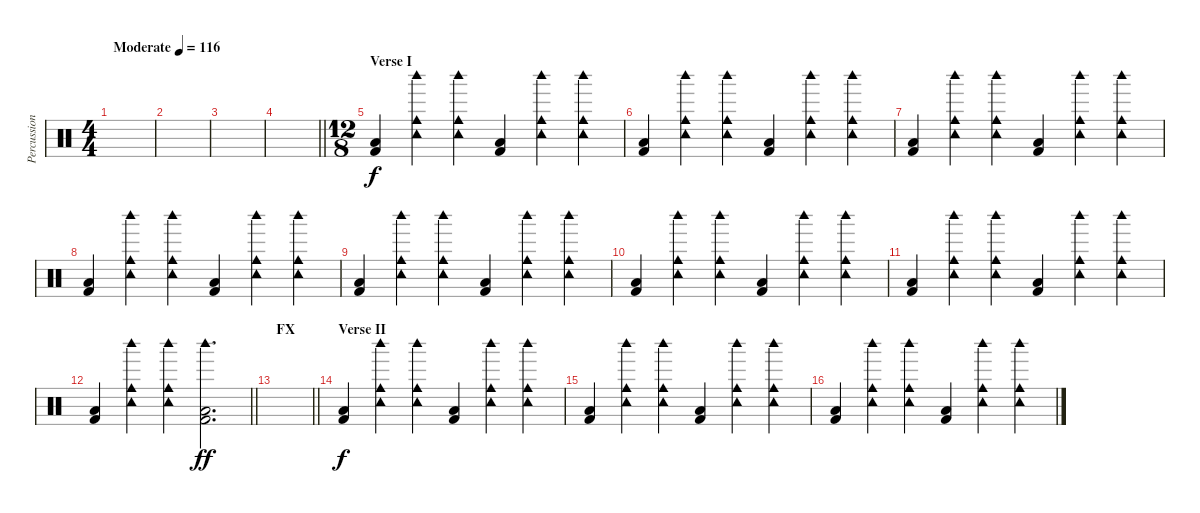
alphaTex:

\track ("Percussion" "Percussion") {instrument percussion}
\staff {score}
\articulation defaults
\ts (4 4)
\tempo (116 "Moderate")
\clef neutral
\ks c
|
|
|
\barLineRight lightlight
|
\ts (12 8)
\section ("" "Verse I")
("Low Floor Tom (hit)" "Kick (hit) 2").4 ("Tambourine (hit)" "Cowbell medium (hit)" "Woodblock high (hit)").4 ("Tambourine (hit)" "Cowbell medium (hit)" "Woodblock high (hit)").4 ("Low Floor Tom (hit)" "Kick (hit) 2").4 ("Tambourine (hit)" "Cowbell medium (hit)" "Woodblock high (hit)").4 ("Tambourine (hit)" "Cowbell medium (hit)" "Woodblock high (hit)").4 |
("Low Floor Tom (hit)" "Kick (hit) 2").4 ("Tambourine (hit)" "Cowbell medium (hit)" "Woodblock high (hit)").4 ("Tambourine (hit)" "Cowbell medium (hit)" "Woodblock high (hit)").4 ("Low Floor Tom (hit)" "Kick (hit) 2").4 ("Tambourine (hit)" "Cowbell medium (hit)" "Woodblock high (hit)").4 ("Tambourine (hit)" "Cowbell medium (hit)" "Woodblock high (hit)").4 |
("Low Floor Tom (hit)" "Kick (hit) 2").4 ("Tambourine (hit)" "Cowbell medium (hit)" "Woodblock high (hit)").4 ("Tambourine (hit)" "Cowbell medium (hit)" "Woodblock high (hit)").4 ("Low Floor Tom (hit)" "Kick (hit) 2").4 ("Tambourine (hit)" "Cowbell medium (hit)" "Woodblock high (hit)").4 ("Tambourine (hit)" "Cowbell medium (hit)" "Woodblock high (hit)").4 |
("Low Floor Tom (hit)" "Kick (hit) 2").4 ("Tambourine (hit)" "Cowbell medium (hit)" "Woodblock high (hit)").4 ("Tambourine (hit)" "Cowbell medium (hit)" "Woodblock high (hit)").4 ("Low Floor Tom (hit)" "Kick (hit) 2").4 ("Tambourine (hit)" "Cowbell medium (hit)" "Woodblock high (hit)").4 ("Tambourine (hit)" "Cowbell medium (hit)" "Woodblock high (hit)").4 |
("Low Floor Tom (hit)" "Kick (hit) 2").4 ("Tambourine (hit)" "Cowbell medium (hit)" "Woodblock high (hit)").4 ("Tambourine (hit)" "Cowbell medium (hit)" "Woodblock high (hit)").4 ("Low Floor Tom (hit)" "Kick (hit) 2").4 ("Tambourine (hit)" "Cowbell medium (hit)" "Woodblock high (hit)").4 ("Tambourine (hit)" "Cowbell medium (hit)" "Woodblock high (hit)").4 |
("Low Floor Tom (hit)" "Kick (hit) 2").4 ("Tambourine (hit)" "Cowbell medium (hit)" "Woodblock high (hit)").4 ("Tambourine (hit)" "Cowbell medium (hit)" "Woodblock high (hit)").4 ("Low Floor Tom (hit)" "Kick (hit) 2").4 ("Tambourine (hit)" "Cowbell medium (hit)" "Woodblock high (hit)").4 ("Tambourine (hit)" "Cowbell medium (hit)" "Woodblock high (hit)").4 |
("Low Floor Tom (hit)" "Kick (hit) 2").4 ("Tambourine (hit)" "Cowbell medium (hit)" "Woodblock high (hit)").4 ("Tambourine (hit)" "Cowbell medium (hit)" "Woodblock high (hit)").4 ("Low Floor Tom (hit)" "Kick (hit) 2").4 ("Tambourine (hit)" "Cowbell medium (hit)" "Woodblock high (hit)").4 ("Tambourine (hit)" "Cowbell medium (hit)" "Woodblock high (hit)").4 |
\barLineRight lightlight
("Low Floor Tom (hit)" "Kick (hit) 2").4 ("Tambourine (hit)" "Cowbell medium (hit)" "Woodblock high (hit)").4 ("Tambourine (hit)" "Cowbell medium (hit)" "Woodblock high (hit)").4 ("Woodblock high (hit)" "Low Floor Tom (hit)" "Kick (hit) 2").2{d dy ff} |
\section ("" "FX")
\barLineRight lightlight
|
\section ("" "Verse II")
("Low Floor Tom (hit)" "Kick (hit) 2").4{dy f} ("Tambourine (hit)" "Cowbell medium (hit)" "Woodblock high (hit)").4 ("Tambourine (hit)" "Cowbell medium (hit)" "Woodblock high (hit)").4 ("Low Floor Tom (hit)" "Kick (hit) 2").4 ("Tambourine (hit)" "Cowbell medium (hit)" "Woodblock high (hit)").4 ("Tambourine (hit)" "Cowbell medium (hit)" "Woodblock high (hit)").4 |
("Low Floor Tom (hit)" "Kick (hit) 2").4 ("Tambourine (hit)" "Cowbell medium (hit)" "Woodblock high (hit)").4 ("Tambourine (hit)" "Cowbell medium (hit)" "Woodblock high (hit)").4 ("Low Floor Tom (hit)" "Kick (hit) 2").4 ("Tambourine (hit)" "Cowbell medium (hit)" "Woodblock high (hit)").4 ("Tambourine (hit)" "Cowbell medium (hit)" "Woodblock high (hit)").4 |
("Low Floor Tom (hit)" "Kick (hit) 2").4 ("Tambourine (hit)" "Cowbell medium (hit)" "Woodblock high (hit)").4 ("Tambourine (hit)" "Cowbell medium (hit)" "Woodblock high (hit)").4 ("Low Floor Tom (hit)" "Kick (hit) 2").4 ("Tambourine (hit)" "Cowbell medium (hit)" "Woodblock high (hit)").4 ("Tambourine (hit)" "Cowbell medium (hit)" "Woodblock high (hit)").4
